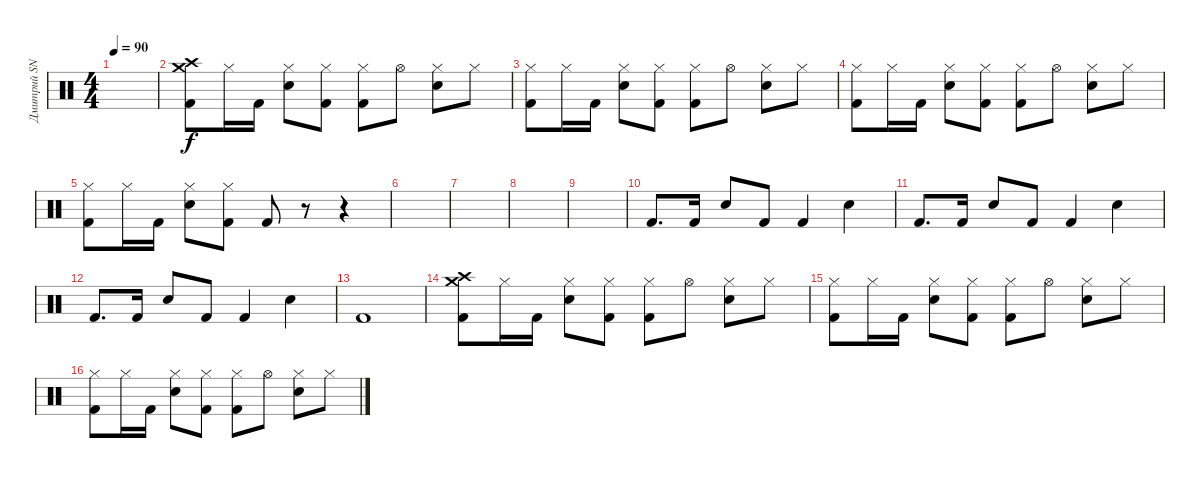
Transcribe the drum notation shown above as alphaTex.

\track ("Дмитрий SNAKE Хакимов" "Дмитрий SN") {instrument percussion}
\staff {score}
\articulation defaults
\ts (4 4)
\tempo 90
\clef neutral
\ks c
|
("Crash high (hit)" "Crash medium (hit)" "Kick (hit) 2").8 "Hi-Hat (closed)".16 "Kick (hit) 2".16 ("Hi-Hat (closed)" "Snare (hit) 2").8 ("Hi-Hat (closed)" "Kick (hit) 2").8 ("Hi-Hat (closed)" "Kick (hit) 2").8 "Hi-Hat (open)".8 ("Hi-Hat (closed)" "Snare (hit) 2").8 "Hi-Hat (closed)".8 |
("Hi-Hat (closed)" "Kick (hit) 2").8 "Hi-Hat (closed)".16 "Kick (hit) 2".16 ("Hi-Hat (closed)" "Snare (hit) 2").8 ("Hi-Hat (closed)" "Kick (hit) 2").8 ("Hi-Hat (closed)" "Kick (hit) 2").8 "Hi-Hat (open)".8 ("Hi-Hat (closed)" "Snare (hit) 2").8 "Hi-Hat (closed)".8 |
("Hi-Hat (closed)" "Kick (hit) 2").8 "Hi-Hat (closed)".16 "Kick (hit) 2".16 ("Hi-Hat (closed)" "Snare (hit) 2").8 ("Hi-Hat (closed)" "Kick (hit) 2").8 ("Hi-Hat (closed)" "Kick (hit) 2").8 "Hi-Hat (open)".8 ("Hi-Hat (closed)" "Snare (hit) 2").8 "Hi-Hat (closed)".8 |
("Hi-Hat (closed)" "Kick (hit) 2").8 "Hi-Hat (closed)".16 "Kick (hit) 2".16 ("Hi-Hat (closed)" "Snare (hit) 2").8 ("Hi-Hat (closed)" "Kick (hit) 2").8 "Kick (hit) 2".8 r.8 r.4 |
|
|
|
|
"Kick (hit) 2".8{d} "Kick (hit) 2".16 "Snare (hit) 2".8 "Kick (hit) 2".8 "Kick (hit) 2".4 "Snare (hit) 2".4 |
"Kick (hit) 2".8{d} "Kick (hit) 2".16 "Snare (hit) 2".8 "Kick (hit) 2".8 "Kick (hit) 2".4 "Snare (hit) 2".4 |
"Kick (hit) 2".8{d} "Kick (hit) 2".16 "Snare (hit) 2".8 "Kick (hit) 2".8 "Kick (hit) 2".4 "Snare (hit) 2".4 |
"Kick (hit) 2".1 |
("Crash high (hit)" "Crash medium (hit)" "Kick (hit) 2").8 "Hi-Hat (closed)".16 "Kick (hit) 2".16 ("Hi-Hat (closed)" "Snare (hit) 2").8 ("Hi-Hat (closed)" "Kick (hit) 2").8 ("Hi-Hat (closed)" "Kick (hit) 2").8 "Hi-Hat (open)".8 ("Hi-Hat (closed)" "Snare (hit) 2").8 "Hi-Hat (closed)".8 |
("Hi-Hat (closed)" "Kick (hit) 2").8 "Hi-Hat (closed)".16 "Kick (hit) 2".16 ("Hi-Hat (closed)" "Snare (hit) 2").8 ("Hi-Hat (closed)" "Kick (hit) 2").8 ("Hi-Hat (closed)" "Kick (hit) 2").8 "Hi-Hat (open)".8 ("Hi-Hat (closed)" "Snare (hit) 2").8 "Hi-Hat (closed)".8 |
("Hi-Hat (closed)" "Kick (hit) 2").8 "Hi-Hat (closed)".16 "Kick (hit) 2".16 ("Hi-Hat (closed)" "Snare (hit) 2").8 ("Hi-Hat (closed)" "Kick (hit) 2").8 ("Hi-Hat (closed)" "Kick (hit) 2").8 "Hi-Hat (open)".8 ("Hi-Hat (closed)" "Snare (hit) 2").8 "Hi-Hat (closed)".8
